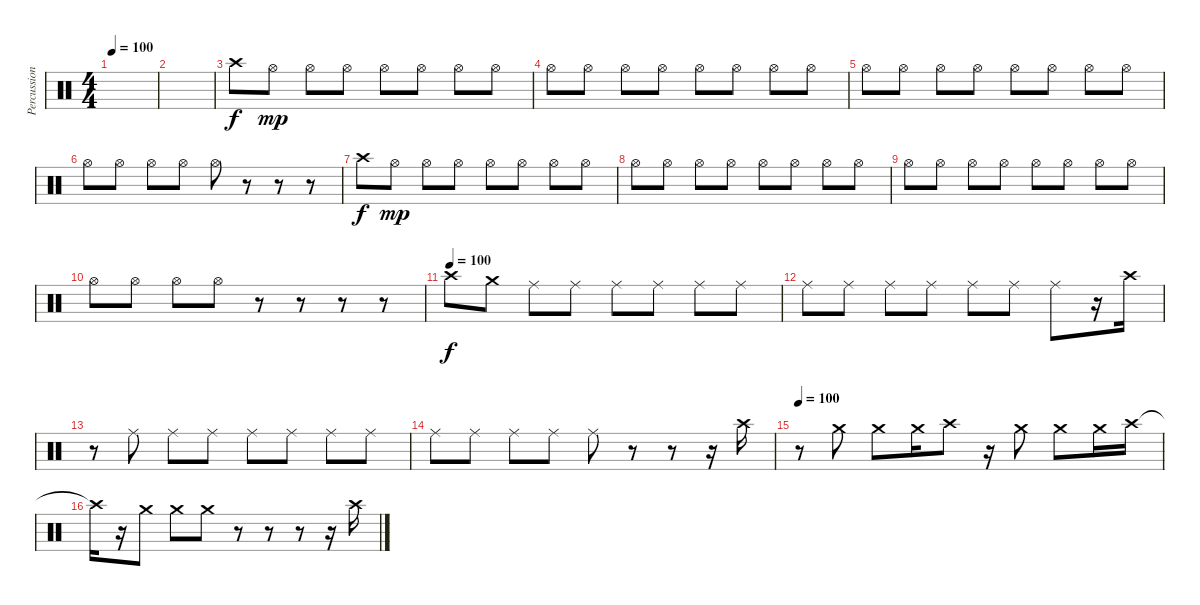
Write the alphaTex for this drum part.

\track ("Percussion2" "Percussion") {instrument percussion}
\staff {score}
\articulation defaults
\ts (4 4)
\tempo 100
\clef neutral
\ks c
|
|
"Crash high (hit)".8 "Hi-Hat (open)".8{dy mp} "Hi-Hat (open)".8 "Hi-Hat (open)".8 "Hi-Hat (open)".8 "Hi-Hat (open)".8 "Hi-Hat (open)".8 "Hi-Hat (open)".8 |
"Hi-Hat (open)".8 "Hi-Hat (open)".8 "Hi-Hat (open)".8 "Hi-Hat (open)".8 "Hi-Hat (open)".8 "Hi-Hat (open)".8 "Hi-Hat (open)".8 "Hi-Hat (open)".8 |
"Hi-Hat (open)".8 "Hi-Hat (open)".8 "Hi-Hat (open)".8 "Hi-Hat (open)".8 "Hi-Hat (open)".8 "Hi-Hat (open)".8 "Hi-Hat (open)".8 "Hi-Hat (open)".8 |
"Hi-Hat (open)".8 "Hi-Hat (open)".8 "Hi-Hat (open)".8 "Hi-Hat (open)".8 "Hi-Hat (open)".8 r.8 r.8 r.8 |
"Crash high (hit)".8{dy f} "Hi-Hat (open)".8{dy mp} "Hi-Hat (open)".8 "Hi-Hat (open)".8 "Hi-Hat (open)".8 "Hi-Hat (open)".8 "Hi-Hat (open)".8 "Hi-Hat (open)".8 |
"Hi-Hat (open)".8 "Hi-Hat (open)".8 "Hi-Hat (open)".8 "Hi-Hat (open)".8 "Hi-Hat (open)".8 "Hi-Hat (open)".8 "Hi-Hat (open)".8 "Hi-Hat (open)".8 |
"Hi-Hat (open)".8 "Hi-Hat (open)".8 "Hi-Hat (open)".8 "Hi-Hat (open)".8 "Hi-Hat (open)".8 "Hi-Hat (open)".8 "Hi-Hat (open)".8 "Hi-Hat (open)".8 |
"Hi-Hat (open)".8 "Hi-Hat (open)".8 "Hi-Hat (open)".8 "Hi-Hat (open)".8 r.8 r.8 r.8 r.8 |
\tempo (100)
"Crash high (hit)".8{dy f} "Crash medium (hit)".8 "Ride (middle)".8 "Ride (middle)".8 "Ride (middle)".8 "Ride (middle)".8 "Ride (middle)".8 "Ride (middle)".8 |
"Ride (middle)".8 "Ride (middle)".8 "Ride (middle)".8 "Ride (middle)".8 "Ride (middle)".8 "Ride (middle)".8 "Ride (middle)".8 r.16 "Crash high (hit)".16 |
r.8 "Ride (middle)".8 "Ride (middle)".8 "Ride (middle)".8 "Ride (middle)".8 "Ride (middle)".8 "Ride (middle)".8 "Ride (middle)".8 |
"Ride (middle)".8 "Ride (middle)".8 "Ride (middle)".8 "Ride (middle)".8 "Ride (middle)".8 r.8 r.8 r.16 "Crash high (hit)".16 |
\tempo 100
r.8 "Crash medium (hit)".8 "Crash medium (hit)".8 "Crash medium (hit)".16 "Crash high (hit)".8 r.16 "Crash medium (hit)".8 "Crash medium (hit)".8 "Crash medium (hit)".16 "Crash high (hit)".16 |
"Crash high (hit)"{t}.16 r.16 "Crash medium (hit)".8 "Crash medium (hit)".8 "Crash medium (hit)".8 r.8 r.8 r.8 r.16 "Crash high (hit)".16
